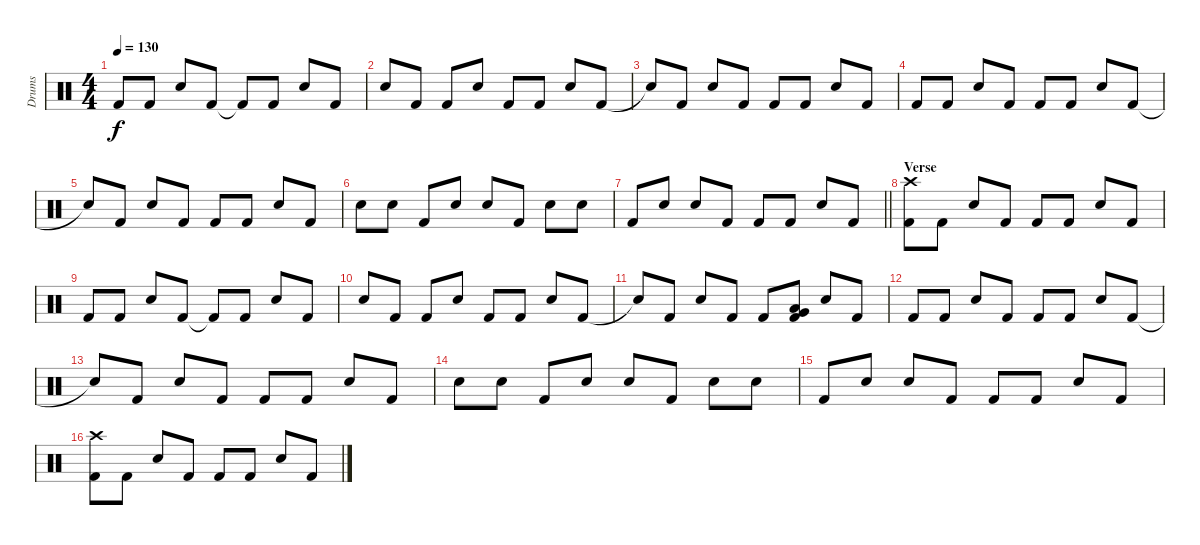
\track ("Drums" "Drums") {instrument percussion}
\staff {score}
\articulation defaults
\ts (4 4)
\tempo 130
\clef neutral
\ks c "Kick (hit) 2".8{dy f} "Kick (hit) 2".8 "Electric Snare (hit)".8 "Kick (hit) 2".8 "Kick (hit) 2"{t}.8 "Kick (hit) 2".8 "Electric Snare (hit)".8 "Kick (hit) 2".8
|
"Electric Snare (hit)".8 "Kick (hit) 2".8 "Kick (hit) 2".8 "Electric Snare (hit)".8 "Kick (hit) 2".8 "Kick (hit) 2".8 "Electric Snare (hit)".8 "Kick (hit) 2".8 |
"Snare (hit)"{t}.8 "Kick (hit) 2".8 "Electric Snare (hit)".8 "Kick (hit) 2".8 "Kick (hit) 2".8 "Kick (hit) 2".8 "Electric Snare (hit)".8 "Kick (hit) 2".8 |
"Kick (hit) 2".8 "Kick (hit) 2".8 "Electric Snare (hit)".8 "Kick (hit) 2".8 "Kick (hit) 2".8 "Kick (hit) 2".8 "Electric Snare (hit)".8 "Kick (hit) 2".8 |
"Snare (hit)"{t}.8 "Kick (hit) 2".8 "Electric Snare (hit)".8 "Kick (hit) 2".8 "Kick (hit) 2".8 "Kick (hit) 2".8 "Electric Snare (hit)".8 "Kick (hit) 2".8 |
"Electric Snare (hit)".8 "Electric Snare (hit)".8 "Kick (hit) 2".8 "Electric Snare (hit)".8 "Electric Snare (hit)".8 "Kick (hit) 2".8 "Electric Snare (hit)".8 "Electric Snare (hit)".8 |
\barLineRight lightlight "Kick (hit) 2".8 "Electric Snare (hit)".8 "Electric Snare (hit)".8 "Kick (hit) 2".8 "Kick (hit) 2".8 "Kick (hit) 2".8 "Electric Snare (hit)".8 "Kick (hit) 2".8
|
\section ("" "Verse")
("Crash high (hit)" "Kick (hit) 2").8 "Kick (hit) 2".8 "Electric Snare (hit)".8 "Kick (hit) 2".8 "Kick (hit) 2".8 "Kick (hit) 2".8 "Electric Snare (hit)".8 "Kick (hit) 2".8 |
"Kick (hit) 2".8 "Kick (hit) 2".8 "Electric Snare (hit)".8 "Kick (hit) 2".8 "Kick (hit) 2"{t}.8 "Kick (hit) 2".8 "Electric Snare (hit)".8 "Kick (hit) 2".8 |
"Electric Snare (hit)".8 "Kick (hit) 2".8 "Kick (hit) 2".8 "Electric Snare (hit)".8 "Kick (hit) 2".8 "Kick (hit) 2".8 "Electric Snare (hit)".8 "Kick (hit) 2".8 |
"Snare (hit)"{t}.8 "Kick (hit) 2".8 "Electric Snare (hit)".8 "Kick (hit) 2".8 "Kick (hit) 2".8 ("Low Floor Tom (hit)" "Very Low Tom (hit)" "Kick (hit) 2").8 "Electric Snare (hit)".8 "Kick (hit) 2".8 |
"Kick (hit) 2".8 "Kick (hit) 2".8 "Electric Snare (hit)".8 "Kick (hit) 2".8 "Kick (hit) 2".8 "Kick (hit) 2".8 "Electric Snare (hit)".8 "Kick (hit) 2".8 |
"Snare (hit)"{t}.8 "Kick (hit) 2".8 "Electric Snare (hit)".8 "Kick (hit) 2".8 "Kick (hit) 2".8 "Kick (hit) 2".8 "Electric Snare (hit)".8 "Kick (hit) 2".8 |
"Electric Snare (hit)".8 "Electric Snare (hit)".8 "Kick (hit) 2".8 "Electric Snare (hit)".8 "Electric Snare (hit)".8 "Kick (hit) 2".8 "Electric Snare (hit)".8 "Electric Snare (hit)".8 |
"Kick (hit) 2".8 "Electric Snare (hit)".8 "Electric Snare (hit)".8 "Kick (hit) 2".8 "Kick (hit) 2".8 "Kick (hit) 2".8 "Electric Snare (hit)".8 "Kick (hit) 2".8 |
("Crash high (hit)" "Kick (hit) 2").8 "Kick (hit) 2".8 "Electric Snare (hit)".8 "Kick (hit) 2".8 "Kick (hit) 2".8 "Kick (hit) 2".8 "Electric Snare (hit)".8 "Kick (hit) 2".8
